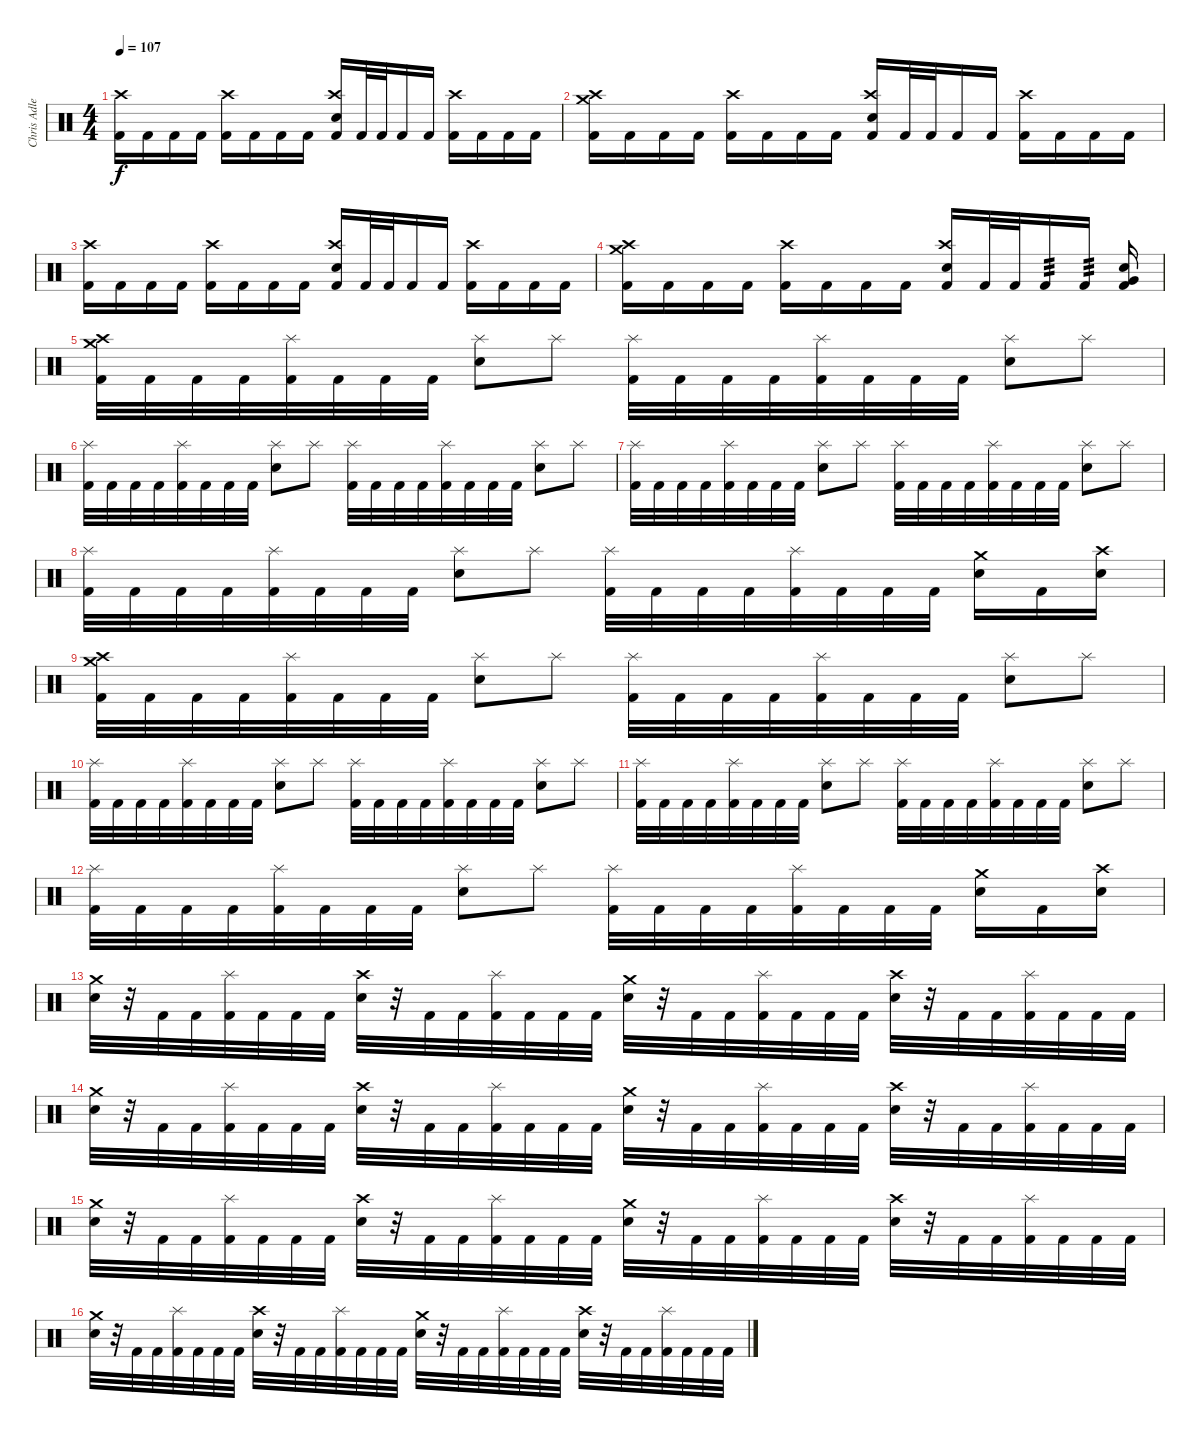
\track ("Chris Adler" "Chris Adle") {instrument percussion}
\staff {score}
\articulation defaults
\ts (4 4)
\tempo 107
\clef neutral
\ks c
("Kick (hit) 2" "Crash high (hit)").16{dy f} "Kick (hit) 2".16 "Kick (hit) 2".16 "Kick (hit) 2".16 ("Kick (hit) 2" "Crash high (hit)").16 "Kick (hit) 2".16 "Kick (hit) 2".16 "Kick (hit) 2".16 ("Kick (hit) 2" "Electric Snare (hit)" "Crash high (hit)").16 "Kick (hit) 2".32 "Kick (hit) 2".32 "Kick (hit) 2".16 "Kick (hit) 2".16 ("Kick (hit) 2" "Crash high (hit)").16 "Kick (hit) 2".16 "Kick (hit) 2".16 "Kick (hit) 2".16 |
("Kick (hit) 2" "Crash medium (hit)" "Crash high (hit)").16 "Kick (hit) 2".16 "Kick (hit) 2".16 "Kick (hit) 2".16 ("Kick (hit) 2" "Crash high (hit)").16 "Kick (hit) 2".16 "Kick (hit) 2".16 "Kick (hit) 2".16 ("Kick (hit) 2" "Electric Snare (hit)" "Crash high (hit)").16 "Kick (hit) 2".32 "Kick (hit) 2".32 "Kick (hit) 2".16 "Kick (hit) 2".16 ("Kick (hit) 2" "Crash high (hit)").16 "Kick (hit) 2".16 "Kick (hit) 2".16 "Kick (hit) 2".16 |
("Kick (hit) 2" "Crash high (hit)").16 "Kick (hit) 2".16 "Kick (hit) 2".16 "Kick (hit) 2".16 ("Kick (hit) 2" "Crash high (hit)").16 "Kick (hit) 2".16 "Kick (hit) 2".16 "Kick (hit) 2".16 ("Kick (hit) 2" "Electric Snare (hit)" "Crash high (hit)").16 "Kick (hit) 2".32 "Kick (hit) 2".32 "Kick (hit) 2".16 "Kick (hit) 2".16 ("Kick (hit) 2" "Crash high (hit)").16 "Kick (hit) 2".16 "Kick (hit) 2".16 "Kick (hit) 2".16 |
("Kick (hit) 2" "Crash medium (hit)" "Crash high (hit)").16 "Kick (hit) 2".16 "Kick (hit) 2".16 "Kick (hit) 2".16 ("Kick (hit) 2" "Crash high (hit)").16 "Kick (hit) 2".16 "Kick (hit) 2".16 "Kick (hit) 2".16 ("Kick (hit) 2" "Electric Snare (hit)" "Crash high (hit)").16 "Kick (hit) 2".32 "Kick (hit) 2".32 "Kick (hit) 2".16{tp 3} "Kick (hit) 2".16{tp 3} ("Kick (hit) 2" "Electric Snare (hit)" "Very Low Tom (hit)").16 |
("Kick (hit) 2" "Crash high (hit)" "Crash medium (hit)").32 "Kick (hit) 2".32 "Kick (hit) 2".32 "Kick (hit) 2".32 ("Kick (hit) 2" "Splash (hit)").32 "Kick (hit) 2".32 "Kick (hit) 2".32 "Kick (hit) 2".32 ("Electric Snare (hit)" "Splash (hit)").8 "Splash (hit)".8 ("Kick (hit) 2" "Splash (hit)").32 "Kick (hit) 2".32 "Kick (hit) 2".32 "Kick (hit) 2".32 ("Kick (hit) 2" "Splash (hit)").32 "Kick (hit) 2".32 "Kick (hit) 2".32 "Kick (hit) 2".32 ("Electric Snare (hit)" "Splash (hit)").8 "Splash (hit)".8 |
("Kick (hit) 2" "Splash (hit)").32 "Kick (hit) 2".32 "Kick (hit) 2".32 "Kick (hit) 2".32 ("Kick (hit) 2" "Splash (hit)").32 "Kick (hit) 2".32 "Kick (hit) 2".32 "Kick (hit) 2".32 ("Electric Snare (hit)" "Splash (hit)").8 "Splash (hit)".8 ("Kick (hit) 2" "Splash (hit)").32 "Kick (hit) 2".32 "Kick (hit) 2".32 "Kick (hit) 2".32 ("Kick (hit) 2" "Splash (hit)").32 "Kick (hit) 2".32 "Kick (hit) 2".32 "Kick (hit) 2".32 ("Electric Snare (hit)" "Splash (hit)").8 "Splash (hit)".8 |
("Kick (hit) 2" "Splash (hit)").32 "Kick (hit) 2".32 "Kick (hit) 2".32 "Kick (hit) 2".32 ("Kick (hit) 2" "Splash (hit)").32 "Kick (hit) 2".32 "Kick (hit) 2".32 "Kick (hit) 2".32 ("Electric Snare (hit)" "Splash (hit)").8 "Splash (hit)".8 ("Kick (hit) 2" "Splash (hit)").32 "Kick (hit) 2".32 "Kick (hit) 2".32 "Kick (hit) 2".32 ("Kick (hit) 2" "Splash (hit)").32 "Kick (hit) 2".32 "Kick (hit) 2".32 "Kick (hit) 2".32 ("Electric Snare (hit)" "Splash (hit)").8 "Splash (hit)".8 |
("Kick (hit) 2" "Splash (hit)").32 "Kick (hit) 2".32 "Kick (hit) 2".32 "Kick (hit) 2".32 ("Kick (hit) 2" "Splash (hit)").32 "Kick (hit) 2".32 "Kick (hit) 2".32 "Kick (hit) 2".32 ("Electric Snare (hit)" "Splash (hit)").8 "Splash (hit)".8 ("Kick (hit) 2" "Splash (hit)").32 "Kick (hit) 2".32 "Kick (hit) 2".32 "Kick (hit) 2".32 ("Kick (hit) 2" "Splash (hit)").32 "Kick (hit) 2".32 "Kick (hit) 2".32 "Kick (hit) 2".32 ("Electric Snare (hit)" "Crash medium (hit)").16 "Kick (hit) 2".16 ("Electric Snare (hit)" "Crash high (hit)").16 |
("Kick (hit) 2" "Crash high (hit)" "Crash medium (hit)").32 "Kick (hit) 2".32 "Kick (hit) 2".32 "Kick (hit) 2".32 ("Kick (hit) 2" "Splash (hit)").32 "Kick (hit) 2".32 "Kick (hit) 2".32 "Kick (hit) 2".32 ("Electric Snare (hit)" "Splash (hit)").8 "Splash (hit)".8 ("Kick (hit) 2" "Splash (hit)").32 "Kick (hit) 2".32 "Kick (hit) 2".32 "Kick (hit) 2".32 ("Kick (hit) 2" "Splash (hit)").32 "Kick (hit) 2".32 "Kick (hit) 2".32 "Kick (hit) 2".32 ("Electric Snare (hit)" "Splash (hit)").8 "Splash (hit)".8 |
("Kick (hit) 2" "Splash (hit)").32 "Kick (hit) 2".32 "Kick (hit) 2".32 "Kick (hit) 2".32 ("Kick (hit) 2" "Splash (hit)").32 "Kick (hit) 2".32 "Kick (hit) 2".32 "Kick (hit) 2".32 ("Electric Snare (hit)" "Splash (hit)").8 "Splash (hit)".8 ("Kick (hit) 2" "Splash (hit)").32 "Kick (hit) 2".32 "Kick (hit) 2".32 "Kick (hit) 2".32 ("Kick (hit) 2" "Splash (hit)").32 "Kick (hit) 2".32 "Kick (hit) 2".32 "Kick (hit) 2".32 ("Electric Snare (hit)" "Splash (hit)").8 "Splash (hit)".8 |
("Kick (hit) 2" "Splash (hit)").32 "Kick (hit) 2".32 "Kick (hit) 2".32 "Kick (hit) 2".32 ("Kick (hit) 2" "Splash (hit)").32 "Kick (hit) 2".32 "Kick (hit) 2".32 "Kick (hit) 2".32 ("Electric Snare (hit)" "Splash (hit)").8 "Splash (hit)".8 ("Kick (hit) 2" "Splash (hit)").32 "Kick (hit) 2".32 "Kick (hit) 2".32 "Kick (hit) 2".32 ("Kick (hit) 2" "Splash (hit)").32 "Kick (hit) 2".32 "Kick (hit) 2".32 "Kick (hit) 2".32 ("Electric Snare (hit)" "Splash (hit)").8 "Splash (hit)".8 |
("Kick (hit) 2" "Splash (hit)").32 "Kick (hit) 2".32 "Kick (hit) 2".32 "Kick (hit) 2".32 ("Kick (hit) 2" "Splash (hit)").32 "Kick (hit) 2".32 "Kick (hit) 2".32 "Kick (hit) 2".32 ("Electric Snare (hit)" "Splash (hit)").8 "Splash (hit)".8 ("Kick (hit) 2" "Splash (hit)").32 "Kick (hit) 2".32 "Kick (hit) 2".32 "Kick (hit) 2".32 ("Kick (hit) 2" "Splash (hit)").32 "Kick (hit) 2".32 "Kick (hit) 2".32 "Kick (hit) 2".32 ("Electric Snare (hit)" "Crash medium (hit)").16 "Kick (hit) 2".16 ("Electric Snare (hit)" "Crash high (hit)").16 |
("Electric Snare (hit)" "Crash medium (hit)").32 r.32 "Kick (hit) 2".32 "Kick (hit) 2".32 ("Kick (hit) 2" "Splash (hit)").32 "Kick (hit) 2".32 "Kick (hit) 2".32 "Kick (hit) 2".32 ("Electric Snare (hit)" "Crash high (hit)").32 r.32 "Kick (hit) 2".32 "Kick (hit) 2".32 ("Kick (hit) 2" "Splash (hit)").32 "Kick (hit) 2".32 "Kick (hit) 2".32 "Kick (hit) 2".32 ("Electric Snare (hit)" "Crash medium (hit)").32 r.32 "Kick (hit) 2".32 "Kick (hit) 2".32 ("Kick (hit) 2" "Splash (hit)").32 "Kick (hit) 2".32 "Kick (hit) 2".32 "Kick (hit) 2".32 ("Electric Snare (hit)" "Crash high (hit)").32 r.32 "Kick (hit) 2".32 "Kick (hit) 2".32 ("Kick (hit) 2" "Splash (hit)").32 "Kick (hit) 2".32 "Kick (hit) 2".32 "Kick (hit) 2".32 |
("Electric Snare (hit)" "Crash medium (hit)").32 r.32 "Kick (hit) 2".32 "Kick (hit) 2".32 ("Kick (hit) 2" "Splash (hit)").32 "Kick (hit) 2".32 "Kick (hit) 2".32 "Kick (hit) 2".32 ("Electric Snare (hit)" "Crash high (hit)").32 r.32 "Kick (hit) 2".32 "Kick (hit) 2".32 ("Kick (hit) 2" "Splash (hit)").32 "Kick (hit) 2".32 "Kick (hit) 2".32 "Kick (hit) 2".32 ("Electric Snare (hit)" "Crash medium (hit)").32 r.32 "Kick (hit) 2".32 "Kick (hit) 2".32 ("Kick (hit) 2" "Splash (hit)").32 "Kick (hit) 2".32 "Kick (hit) 2".32 "Kick (hit) 2".32 ("Electric Snare (hit)" "Crash high (hit)").32 r.32 "Kick (hit) 2".32 "Kick (hit) 2".32 ("Kick (hit) 2" "Splash (hit)").32 "Kick (hit) 2".32 "Kick (hit) 2".32 "Kick (hit) 2".32 |
("Electric Snare (hit)" "Crash medium (hit)").32 r.32 "Kick (hit) 2".32 "Kick (hit) 2".32 ("Kick (hit) 2" "Splash (hit)").32 "Kick (hit) 2".32 "Kick (hit) 2".32 "Kick (hit) 2".32 ("Electric Snare (hit)" "Crash high (hit)").32 r.32 "Kick (hit) 2".32 "Kick (hit) 2".32 ("Kick (hit) 2" "Splash (hit)").32 "Kick (hit) 2".32 "Kick (hit) 2".32 "Kick (hit) 2".32 ("Electric Snare (hit)" "Crash medium (hit)").32 r.32 "Kick (hit) 2".32 "Kick (hit) 2".32 ("Kick (hit) 2" "Splash (hit)").32 "Kick (hit) 2".32 "Kick (hit) 2".32 "Kick (hit) 2".32 ("Electric Snare (hit)" "Crash high (hit)").32 r.32 "Kick (hit) 2".32 "Kick (hit) 2".32 ("Kick (hit) 2" "Splash (hit)").32 "Kick (hit) 2".32 "Kick (hit) 2".32 "Kick (hit) 2".32 |
("Electric Snare (hit)" "Crash medium (hit)").32 r.32 "Kick (hit) 2".32 "Kick (hit) 2".32 ("Kick (hit) 2" "Splash (hit)").32 "Kick (hit) 2".32 "Kick (hit) 2".32 "Kick (hit) 2".32 ("Electric Snare (hit)" "Crash high (hit)").32 r.32 "Kick (hit) 2".32 "Kick (hit) 2".32 ("Kick (hit) 2" "Splash (hit)").32 "Kick (hit) 2".32 "Kick (hit) 2".32 "Kick (hit) 2".32 ("Electric Snare (hit)" "Crash medium (hit)").32 r.32 "Kick (hit) 2".32 "Kick (hit) 2".32 ("Kick (hit) 2" "Splash (hit)").32 "Kick (hit) 2".32 "Kick (hit) 2".32 "Kick (hit) 2".32 ("Electric Snare (hit)" "Crash high (hit)").32 r.32 "Kick (hit) 2".32 "Kick (hit) 2".32 ("Kick (hit) 2" "Splash (hit)").32 "Kick (hit) 2".32 "Kick (hit) 2".32 "Kick (hit) 2".32
